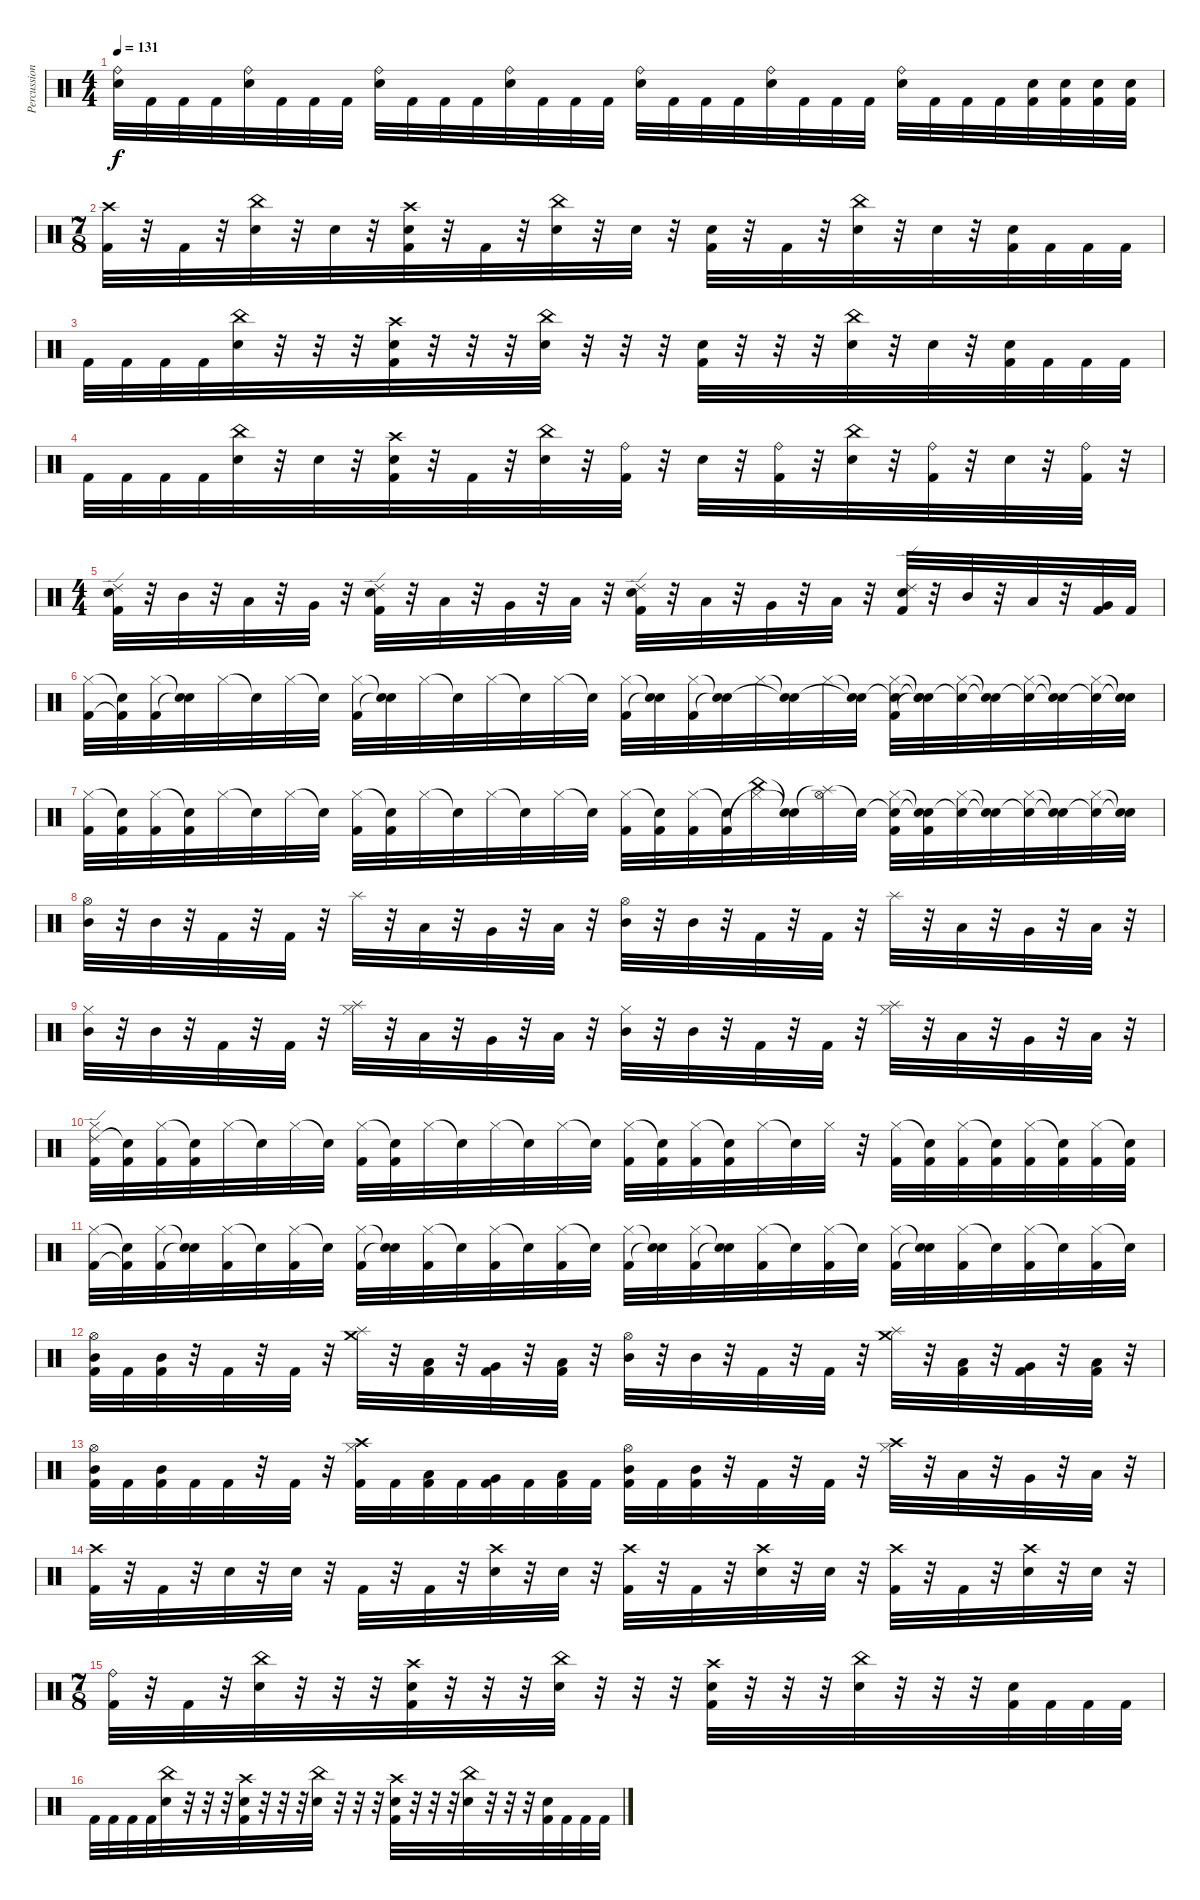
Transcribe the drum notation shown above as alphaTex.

\track ("Percussion" "Percussion") {instrument percussion}
\staff {score}
\articulation defaults
\ts (4 4)
\tempo 131
\clef neutral
\ks c
("Ride (bell)" "Electric Snare (hit)").32{dy f} "Kick (hit) 2".32 "Kick (hit) 2".32 "Kick (hit) 2".32 ("Ride (bell)" "Electric Snare (hit)").32 "Kick (hit) 2".32 "Kick (hit) 2".32 "Kick (hit) 2".32 ("Ride (bell)" "Electric Snare (hit)").32 "Kick (hit) 2".32 "Kick (hit) 2".32 "Kick (hit) 2".32 ("Ride (bell)" "Electric Snare (hit)").32 "Kick (hit) 2".32 "Kick (hit) 2".32 "Kick (hit) 2".32 ("Ride (bell)" "Electric Snare (hit)").32 "Kick (hit) 2".32 "Kick (hit) 2".32 "Kick (hit) 2".32 ("Ride (bell)" "Electric Snare (hit)").32 "Kick (hit) 2".32 "Kick (hit) 2".32 "Kick (hit) 2".32 ("Ride (bell)" "Electric Snare (hit)").32 "Kick (hit) 2".32 "Kick (hit) 2".32 "Kick (hit) 2".32 ("Electric Snare (hit)" "Kick (hit) 2").32 ("Electric Snare (hit)" "Kick (hit) 2").32 ("Electric Snare (hit)" "Kick (hit) 2").32 ("Electric Snare (hit)" "Kick (hit) 2").32 |
\ts (7 8)
("Crash high (hit)" "Kick (hit) 2").32 r.32 "Kick (hit) 2".32 r.32 ("China (hit)" "Electric Snare (hit)").32 r.32 "Electric Snare (hit)".32 r.32 ("Crash high (hit)" "Electric Snare (hit)" "Kick (hit) 2").32 r.32 "Kick (hit) 2".32 r.32 ("China (hit)" "Electric Snare (hit)").32 r.32 "Electric Snare (hit)".32 r.32 ("Electric Snare (hit)" "Kick (hit) 2").32 r.32 "Kick (hit) 2".32 r.32 ("China (hit)" "Electric Snare (hit)").32 r.32 "Electric Snare (hit)".32 r.32 ("Electric Snare (hit)" "Kick (hit) 2").32 "Kick (hit) 2".32 "Kick (hit) 2".32 "Kick (hit) 2".32 |
"Kick (hit) 2".32 "Kick (hit) 2".32 "Kick (hit) 2".32 "Kick (hit) 2".32 ("China (hit)" "Electric Snare (hit)").32 r.32 r.32 r.32 ("Crash high (hit)" "Electric Snare (hit)" "Kick (hit) 2").32 r.32 r.32 r.32 ("China (hit)" "Electric Snare (hit)").32 r.32 r.32 r.32 ("Electric Snare (hit)" "Kick (hit) 2").32 r.32 r.32 r.32 ("China (hit)" "Electric Snare (hit)").32 r.32 "Electric Snare (hit)".32 r.32 ("Electric Snare (hit)" "Kick (hit) 2").32 "Kick (hit) 2".32 "Kick (hit) 2".32 "Kick (hit) 2".32 |
"Kick (hit) 2".32 "Kick (hit) 2".32 "Kick (hit) 2".32 "Kick (hit) 2".32 ("China (hit)" "Electric Snare (hit)").32 r.32 "Electric Snare (hit)".32 r.32 ("Crash high (hit)" "Electric Snare (hit)" "Kick (hit) 2").32 r.32 "Kick (hit) 2".32 r.32 ("China (hit)" "Electric Snare (hit)").32 r.32 ("Ride (bell)" "Kick (hit) 2").32 r.32 "Electric Snare (hit)".32 r.32 ("Ride (bell)" "Kick (hit) 2").32 r.32 ("China (hit)" "Electric Snare (hit)").32 r.32 ("Ride (bell)" "Kick (hit) 2").32 r.32 "Electric Snare (hit)".32 r.32 ("Ride (bell)" "Kick (hit) 2").32 r.32 |
\ts (4 4)
("Ride (edge) 2" "Electric Snare (hit)" "Kick (hit) 2").32 r.32 "Mid Tom (hit)".32 r.32 "Low Tom (hit)".32 r.32 "Very Low Tom (hit)".32 r.32 ("Ride (edge) 2" "Electric Snare (hit)" "Kick (hit) 2").32 r.32 "Low Tom (hit)".32 r.32 "Very Low Tom (hit)".32 r.32 "Low Floor Tom (hit)".32 r.32 ("Ride (edge) 2" "Electric Snare (hit)" "Kick (hit) 2").32 r.32 "Low Tom (hit)".32 r.32 "Very Low Tom (hit)".32 r.32 "Low Floor Tom (hit)".32 r.32 ("Ride (edge) 2" "Electric Snare (hit)" "Kick (hit) 2").32 r.32 "Mid Tom (hit)".32 r.32 "Low Tom (hit)".32 r.32 ("Very Low Tom (hit)" "Kick (hit) 2").32 "Kick (hit) 2".32 |
("Hi-Hat (closed)" "Kick (hit) 2").32 ("Snare (hit)"{t} "Kick (hit) 2"{t}).32 ("Hi-Hat (closed)" "Kick (hit) 2").32 ("Snare (hit)"{t} "Snare (hit)"{t}).32 "Hi-Hat (closed)".32 "Snare (hit)"{t}.32 "Hi-Hat (closed)".32 "Snare (hit)"{t}.32 ("Hi-Hat (closed)" "Kick (hit) 2").32 ("Snare (hit)"{t} "Snare (hit)"{t}).32 "Hi-Hat (closed)".32 "Snare (hit)"{t}.32 "Hi-Hat (closed)".32 "Snare (hit)"{t}.32 "Hi-Hat (closed)".32 "Snare (hit)"{t}.32 ("Hi-Hat (closed)" "Kick (hit) 2").32 ("Snare (hit)"{t} "Snare (hit)"{t}).32 ("Hi-Hat (closed)" "Kick (hit) 2").32 ("Snare (hit)"{t} "Snare (hit)"{t}).32 "Hi-Hat (closed)".32 ("Snare (hit)"{t} "Snare (hit)"{t}).32 "Hi-Hat (closed)".32 ("Snare (hit)"{t} "Snare (hit)"{t}).32 ("Snare (hit)"{t} "Hi-Hat (closed)" "Kick (hit) 2").32 ("Snare (hit)"{t} "Snare (hit)"{t} "Snare (hit)"{t}).32 ("Snare (hit)"{t} "Hi-Hat (closed)").32 ("Snare (hit)"{t} "Snare (hit)"{t}).32 ("Snare (hit)"{t} "Hi-Hat (closed)").32 ("Snare (hit)"{t} "Snare (hit)"{t}).32 ("Snare (hit)"{t} "Hi-Hat (closed)").32 ("Snare (hit)"{t} "Snare (hit)"{t}).32 |
("Hi-Hat (closed)" "Kick (hit) 2").32 ("Snare (hit)"{t} "Kick (hit) 2").32 ("Hi-Hat (closed)" "Kick (hit) 2").32 ("Snare (hit)"{t} "Kick (hit) 2").32 "Hi-Hat (closed)".32 "Snare (hit)"{t}.32 "Hi-Hat (closed)".32 "Snare (hit)"{t}.32 ("Hi-Hat (closed)" "Kick (hit) 2").32 ("Snare (hit)"{t} "Kick (hit) 2").32 "Hi-Hat (closed)".32 "Snare (hit)"{t}.32 "Hi-Hat (closed)".32 "Snare (hit)"{t}.32 "Hi-Hat (closed)".32 "Snare (hit)"{t}.32 ("Hi-Hat (closed)" "Kick (hit) 2").32 ("Snare (hit)"{t} "Kick (hit) 2").32 ("Hi-Hat (closed)" "Kick (hit) 2").32 ("Snare (hit)"{t} "Kick (hit) 2").32 ("China (hit)" "Hi-Hat (closed)"{t}).32 ("Snare (hit)"{t} "Snare (hit)"{t}).32 ("Splash (hit)"{t} "Hi-Hat (open)").32 "Snare (hit)"{t}.32 ("Snare (hit)"{t} "Hi-Hat (closed)" "Kick (hit) 2").32 ("Snare (hit)"{t} "Snare (hit)"{t} "Kick (hit) 2").32 ("Snare (hit)"{t} "Hi-Hat (closed)").32 ("Snare (hit)"{t} "Snare (hit)"{t}).32 ("Snare (hit)"{t} "Hi-Hat (closed)").32 ("Snare (hit)"{t} "Snare (hit)"{t}).32 ("Snare (hit)"{t} "Hi-Hat (closed)").32 ("Snare (hit)"{t} "Snare (hit)"{t}).32 |
("Hi-Hat (open)" "Mid Tom (hit)").32 r.32 "Mid Tom (hit)".32 r.32 "Kick (hit) 2".32 r.32 "Kick (hit) 2".32 r.32 "Splash (hit)".32 r.32 "Low Tom (hit)".32 r.32 "Very Low Tom (hit)".32 r.32 "Low Floor Tom (hit)".32 r.32 ("Hi-Hat (open)" "Mid Tom (hit)").32 r.32 "Mid Tom (hit)".32 r.32 "Kick (hit) 2".32 r.32 "Kick (hit) 2".32 r.32 "Splash (hit)".32 r.32 "Low Tom (hit)".32 r.32 "Very Low Tom (hit)".32 r.32 "Low Floor Tom (hit)".32 r.32 |
("Hi-Hat (closed)" "Mid Tom (hit)").32 r.32 "Mid Tom (hit)".32 r.32 "Kick (hit) 2".32 r.32 "Kick (hit) 2".32 r.32 ("Splash (hit)" "Hi-Hat (closed)").32 r.32 "Low Tom (hit)".32 r.32 "Very Low Tom (hit)".32 r.32 "Low Floor Tom (hit)".32 r.32 ("Hi-Hat (closed)" "Mid Tom (hit)").32 r.32 "Mid Tom (hit)".32 r.32 "Kick (hit) 2".32 r.32 "Kick (hit) 2".32 r.32 ("Splash (hit)" "Hi-Hat (closed)").32 r.32 "Low Tom (hit)".32 r.32 "Very Low Tom (hit)".32 r.32 "Low Floor Tom (hit)".32 r.32 |
("Ride (edge) 2" "Hi-Hat (closed)" "Kick (hit) 2").32 ("Snare (hit)"{t} "Kick (hit) 2").32 ("Hi-Hat (closed)" "Kick (hit) 2").32 ("Snare (hit)"{t} "Kick (hit) 2").32 "Hi-Hat (closed)".32 "Snare (hit)"{t}.32 "Hi-Hat (closed)".32 "Snare (hit)"{t}.32 ("Hi-Hat (closed)" "Kick (hit) 2").32 ("Snare (hit)"{t} "Kick (hit) 2").32 "Hi-Hat (closed)".32 "Snare (hit)"{t}.32 "Hi-Hat (closed)".32 "Snare (hit)"{t}.32 "Hi-Hat (closed)".32 "Snare (hit)"{t}.32 ("Hi-Hat (closed)" "Kick (hit) 2").32 ("Snare (hit)"{t} "Kick (hit) 2").32 ("Hi-Hat (closed)" "Kick (hit) 2").32 ("Snare (hit)"{t} "Kick (hit) 2").32 "Hi-Hat (closed)".32 "Snare (hit)"{t}.32 "Hi-Hat (closed)".32 r.32 ("Hi-Hat (closed)" "Kick (hit) 2").32 ("Snare (hit)"{t} "Kick (hit) 2").32 ("Hi-Hat (closed)" "Kick (hit) 2").32 ("Snare (hit)"{t} "Kick (hit) 2").32 ("Hi-Hat (closed)" "Kick (hit) 2").32 ("Snare (hit)"{t} "Kick (hit) 2").32 ("Hi-Hat (closed)" "Kick (hit) 2").32 ("Snare (hit)"{t} "Kick (hit) 2").32 |
("Hi-Hat (closed)" "Kick (hit) 2").32 ("Snare (hit)"{t} "Kick (hit) 2"{t}).32 ("Hi-Hat (closed)" "Kick (hit) 2").32 ("Snare (hit)"{t} "Snare (hit)"{t}).32 ("Hi-Hat (closed)" "Kick (hit) 2").32 "Snare (hit)"{t}.32 ("Hi-Hat (closed)" "Kick (hit) 2").32 "Snare (hit)"{t}.32 ("Hi-Hat (closed)" "Kick (hit) 2").32 ("Snare (hit)"{t} "Snare (hit)"{t}).32 ("Hi-Hat (closed)" "Kick (hit) 2").32 "Snare (hit)"{t}.32 ("Hi-Hat (closed)" "Kick (hit) 2").32 "Snare (hit)"{t}.32 ("Hi-Hat (closed)" "Kick (hit) 2").32 "Snare (hit)"{t}.32 ("Hi-Hat (closed)" "Kick (hit) 2").32 ("Snare (hit)"{t} "Snare (hit)"{t}).32 ("Hi-Hat (closed)" "Kick (hit) 2").32 ("Snare (hit)"{t} "Snare (hit)"{t}).32 ("Hi-Hat (closed)" "Kick (hit) 2").32 "Snare (hit)"{t}.32 ("Hi-Hat (closed)" "Kick (hit) 2").32 "Snare (hit)"{t}.32 ("Hi-Hat (closed)" "Kick (hit) 2").32 ("Snare (hit)"{t} "Snare (hit)"{t}).32 ("Hi-Hat (closed)" "Kick (hit) 2").32 "Snare (hit)"{t}.32 ("Hi-Hat (closed)" "Kick (hit) 2").32 "Snare (hit)"{t}.32 ("Hi-Hat (closed)" "Kick (hit) 2").32 "Snare (hit)"{t}.32 |
("Hi-Hat (open)" "Mid Tom (hit)" "Kick (hit) 2").32 "Kick (hit) 2".32 ("Mid Tom (hit)" "Kick (hit) 2").32 r.32 "Kick (hit) 2".32 r.32 "Kick (hit) 2".32 r.32 ("Splash (hit)" "Crash medium (hit)").32 r.32 ("Low Tom (hit)" "Kick (hit) 2").32 r.32 ("Very Low Tom (hit)" "Kick (hit) 2").32 r.32 ("Low Floor Tom (hit)" "Kick (hit) 2").32 r.32 ("Hi-Hat (open)" "Mid Tom (hit)").32 r.32 "Mid Tom (hit)".32 r.32 "Kick (hit) 2".32 r.32 "Kick (hit) 2".32 r.32 ("Splash (hit)" "Crash medium (hit)").32 r.32 ("Low Tom (hit)" "Kick (hit) 2").32 r.32 ("Very Low Tom (hit)" "Kick (hit) 2").32 r.32 ("Low Floor Tom (hit)" "Kick (hit) 2").32 r.32 |
("Hi-Hat (open)" "Mid Tom (hit)" "Kick (hit) 2").32 "Kick (hit) 2".32 ("Mid Tom (hit)" "Kick (hit) 2").32 "Kick (hit) 2".32 "Kick (hit) 2".32 r.32 "Kick (hit) 2".32 r.32 ("Crash high (hit)" "Hi-Hat (closed)" "Kick (hit) 2").32 "Kick (hit) 2".32 ("Low Tom (hit)" "Kick (hit) 2").32 "Kick (hit) 2".32 ("Very Low Tom (hit)" "Kick (hit) 2").32 "Kick (hit) 2".32 ("Low Floor Tom (hit)" "Kick (hit) 2").32 "Kick (hit) 2".32 ("Hi-Hat (open)" "Mid Tom (hit)" "Kick (hit) 2").32 "Kick (hit) 2".32 ("Mid Tom (hit)" "Kick (hit) 2").32 r.32 "Kick (hit) 2".32 r.32 "Kick (hit) 2".32 r.32 ("Crash high (hit)" "Hi-Hat (closed)").32 r.32 "Low Tom (hit)".32 r.32 "Very Low Tom (hit)".32 r.32 "Low Floor Tom (hit)".32 r.32 |
("Crash high (hit)" "Kick (hit) 2").32 r.32 "Kick (hit) 2".32 r.32 "Electric Snare (hit)".32 r.32 "Electric Snare (hit)".32 r.32 "Kick (hit) 2".32 r.32 "Kick (hit) 2".32 r.32 ("Crash high (hit)" "Electric Snare (hit)").32 r.32 "Electric Snare (hit)".32 r.32 ("Crash high (hit)" "Kick (hit) 2").32 r.32 "Kick (hit) 2".32 r.32 ("Crash high (hit)" "Electric Snare (hit)").32 r.32 "Electric Snare (hit)".32 r.32 ("Crash high (hit)" "Kick (hit) 2").32 r.32 "Kick (hit) 2".32 r.32 ("Crash high (hit)" "Electric Snare (hit)").32 r.32 "Electric Snare (hit)".32 r.32 |
\ts (7 8)
("Ride (bell)" "Kick (hit) 2").32 r.32 "Kick (hit) 2".32 r.32 ("China (hit)" "Electric Snare (hit)").32 r.32 r.32 r.32 ("Crash high (hit)" "Electric Snare (hit)" "Kick (hit) 2").32 r.32 r.32 r.32 ("China (hit)" "Electric Snare (hit)").32 r.32 r.32 r.32 ("Crash high (hit)" "Electric Snare (hit)" "Kick (hit) 2").32 r.32 r.32 r.32 ("China (hit)" "Electric Snare (hit)").32 r.32 r.32 r.32 ("Electric Snare (hit)" "Kick (hit) 2").32 "Kick (hit) 2".32 "Kick (hit) 2".32 "Kick (hit) 2".32 |
"Kick (hit) 2".32 "Kick (hit) 2".32 "Kick (hit) 2".32 "Kick (hit) 2".32 ("China (hit)" "Electric Snare (hit)").32 r.32 r.32 r.32 ("Crash high (hit)" "Electric Snare (hit)" "Kick (hit) 2").32 r.32 r.32 r.32 ("China (hit)" "Electric Snare (hit)").32 r.32 r.32 r.32 ("Crash high (hit)" "Electric Snare (hit)" "Kick (hit) 2").32 r.32 r.32 r.32 ("China (hit)" "Electric Snare (hit)").32 r.32 r.32 r.32 ("Electric Snare (hit)" "Kick (hit) 2").32 "Kick (hit) 2".32 "Kick (hit) 2".32 "Kick (hit) 2".32
